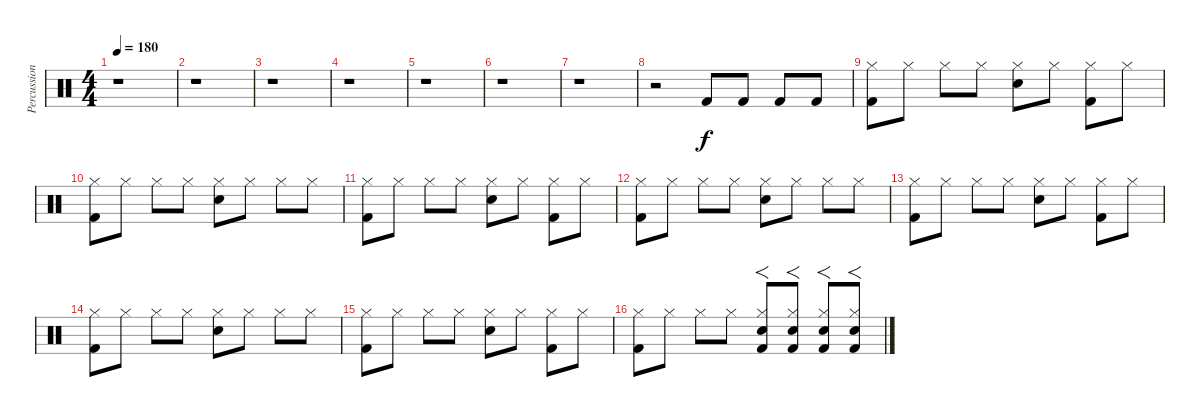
\track ("Percussion" "Percussion") {instrument percussion}
\staff {score}
\articulation defaults
\ts (4 4)
\tempo 180
\clef neutral
\ks c
r.1{dy f} |
r.1 |
r.1 |
r.1 |
r.1 |
r.1 |
r.1 |
r.2 "Kick (hit) 2".8 "Kick (hit) 2".8 "Kick (hit) 2".8 "Kick (hit) 2".8 |
("Hi-Hat (closed)" "Kick (hit) 2").8 "Hi-Hat (closed)".8 "Hi-Hat (closed)".8 "Hi-Hat (closed)".8 ("Hi-Hat (closed)" "Hand Clap (hit)").8 "Hi-Hat (closed)".8 ("Hi-Hat (closed)" "Kick (hit) 2").8 "Hi-Hat (closed)".8 |
("Hi-Hat (closed)" "Kick (hit) 2").8 "Hi-Hat (closed)".8 "Hi-Hat (closed)".8 "Hi-Hat (closed)".8 ("Hi-Hat (closed)" "Hand Clap (hit)").8 "Hi-Hat (closed)".8 "Hi-Hat (closed)".8 "Hi-Hat (closed)".8 |
("Hi-Hat (closed)" "Kick (hit) 2").8 "Hi-Hat (closed)".8 "Hi-Hat (closed)".8 "Hi-Hat (closed)".8 ("Hi-Hat (closed)" "Hand Clap (hit)").8 "Hi-Hat (closed)".8 ("Hi-Hat (closed)" "Kick (hit) 2").8 "Hi-Hat (closed)".8 |
("Hi-Hat (closed)" "Kick (hit) 2").8 "Hi-Hat (closed)".8 "Hi-Hat (closed)".8 "Hi-Hat (closed)".8 ("Hi-Hat (closed)" "Hand Clap (hit)").8 "Hi-Hat (closed)".8 "Hi-Hat (closed)".8 "Hi-Hat (closed)".8 |
("Hi-Hat (closed)" "Kick (hit) 2").8 "Hi-Hat (closed)".8 "Hi-Hat (closed)".8 "Hi-Hat (closed)".8 ("Hi-Hat (closed)" "Hand Clap (hit)").8 "Hi-Hat (closed)".8 ("Hi-Hat (closed)" "Kick (hit) 2").8 "Hi-Hat (closed)".8 |
("Hi-Hat (closed)" "Kick (hit) 2").8 "Hi-Hat (closed)".8 "Hi-Hat (closed)".8 "Hi-Hat (closed)".8 ("Hi-Hat (closed)" "Hand Clap (hit)").8 "Hi-Hat (closed)".8 "Hi-Hat (closed)".8 "Hi-Hat (closed)".8 |
("Hi-Hat (closed)" "Kick (hit) 2").8 "Hi-Hat (closed)".8 "Hi-Hat (closed)".8 "Hi-Hat (closed)".8 ("Hi-Hat (closed)" "Hand Clap (hit)").8 "Hi-Hat (closed)".8 ("Hi-Hat (closed)" "Kick (hit) 2").8 "Hi-Hat (closed)".8 |
("Hi-Hat (closed)" "Kick (hit) 2").8 "Hi-Hat (closed)".8 "Hi-Hat (closed)".8 "Hi-Hat (closed)".8 ("Hi-Hat (closed)" "Electric Snare (hit)" "Kick (hit) 2").8{f} ("Hi-Hat (closed)" "Electric Snare (hit)" "Kick (hit) 2").8{f} ("Hi-Hat (closed)" "Electric Snare (hit)" "Kick (hit) 2").8{f} ("Hi-Hat (closed)" "Electric Snare (hit)" "Kick (hit) 2").8{f}
